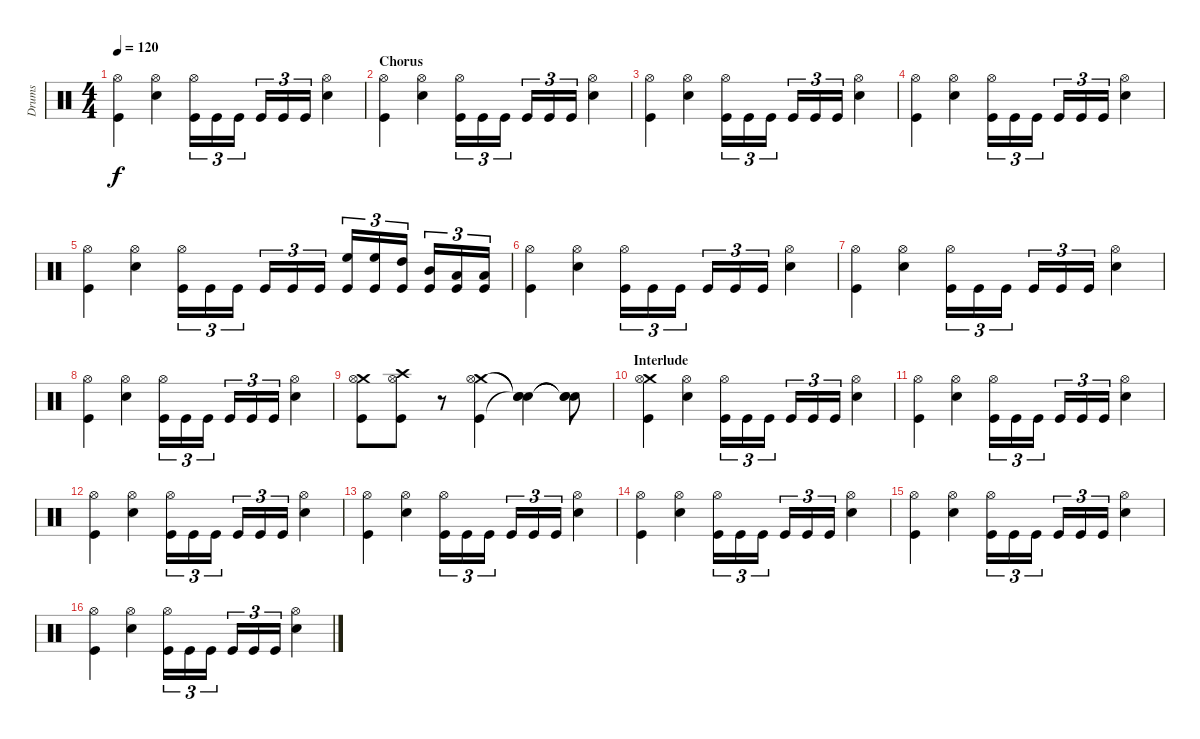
\track ("Drums" "Drums") {instrument percussion}
\staff {score}
\articulation defaults
\ts (4 4)
\tempo 120
\clef neutral
\ks c
("Hi-Hat (open)" "Kick (hit)").4{dy f} ("Hi-Hat (open)" "Snare (hit) 2").4 ("Hi-Hat (open)" "Kick (hit)").16{tu (3 2)} "Kick (hit)".16{tu (3 2)} "Kick (hit)".16{tu (3 2)} "Kick (hit)".16{tu (3 2)} "Kick (hit)".16{tu (3 2)} "Kick (hit)".16{tu (3 2)} ("Hi-Hat (open)" "Snare (hit) 2").4 |
\section ("" "Chorus")
("Hi-Hat (open)" "Kick (hit)").4 ("Hi-Hat (open)" "Snare (hit) 2").4 ("Hi-Hat (open)" "Kick (hit)").16{tu (3 2)} "Kick (hit)".16{tu (3 2)} "Kick (hit)".16{tu (3 2)} "Kick (hit)".16{tu (3 2)} "Kick (hit)".16{tu (3 2)} "Kick (hit)".16{tu (3 2)} ("Hi-Hat (open)" "Snare (hit) 2").4 |
("Hi-Hat (open)" "Kick (hit)").4 ("Hi-Hat (open)" "Snare (hit) 2").4 ("Hi-Hat (open)" "Kick (hit)").16{tu (3 2)} "Kick (hit)".16{tu (3 2)} "Kick (hit)".16{tu (3 2)} "Kick (hit)".16{tu (3 2)} "Kick (hit)".16{tu (3 2)} "Kick (hit)".16{tu (3 2)} ("Hi-Hat (open)" "Snare (hit) 2").4 |
("Hi-Hat (open)" "Kick (hit)").4 ("Hi-Hat (open)" "Snare (hit) 2").4 ("Hi-Hat (open)" "Kick (hit)").16{tu (3 2)} "Kick (hit)".16{tu (3 2)} "Kick (hit)".16{tu (3 2)} "Kick (hit)".16{tu (3 2)} "Kick (hit)".16{tu (3 2)} "Kick (hit)".16{tu (3 2)} ("Hi-Hat (open)" "Snare (hit) 2").4 |
("Hi-Hat (open)" "Kick (hit)").4 ("Hi-Hat (open)" "Snare (hit) 2").4 ("Hi-Hat (open)" "Kick (hit)").16{tu (3 2)} "Kick (hit)".16{tu (3 2)} "Kick (hit)".16{tu (3 2)} "Kick (hit)".16{tu (3 2)} "Kick (hit)".16{tu (3 2)} "Kick (hit)".16{tu (3 2)} ("High Floor Tom (hit)" "Kick (hit)").16{tu (3 2)} ("High Floor Tom (hit)" "Kick (hit)").16{tu (3 2)} ("High Tom (hit)" "Kick (hit)").16{tu (3 2)} ("Mid Tom (hit)" "Kick (hit)").16{tu (3 2)} ("Low Tom (hit)" "Kick (hit)").16{tu (3 2)} ("Low Tom (hit)" "Kick (hit)").16{tu (3 2)} |
("Hi-Hat (open)" "Kick (hit)").4 ("Hi-Hat (open)" "Snare (hit) 2").4 ("Hi-Hat (open)" "Kick (hit)").16{tu (3 2)} "Kick (hit)".16{tu (3 2)} "Kick (hit)".16{tu (3 2)} "Kick (hit)".16{tu (3 2)} "Kick (hit)".16{tu (3 2)} "Kick (hit)".16{tu (3 2)} ("Hi-Hat (open)" "Snare (hit) 2").4 |
("Hi-Hat (open)" "Kick (hit)").4 ("Hi-Hat (open)" "Snare (hit) 2").4 ("Hi-Hat (open)" "Kick (hit)").16{tu (3 2)} "Kick (hit)".16{tu (3 2)} "Kick (hit)".16{tu (3 2)} "Kick (hit)".16{tu (3 2)} "Kick (hit)".16{tu (3 2)} "Kick (hit)".16{tu (3 2)} ("Hi-Hat (open)" "Snare (hit) 2").4 |
("Hi-Hat (open)" "Kick (hit)").4 ("Hi-Hat (open)" "Snare (hit) 2").4 ("Hi-Hat (open)" "Kick (hit)").16{tu (3 2)} "Kick (hit)".16{tu (3 2)} "Kick (hit)".16{tu (3 2)} "Kick (hit)".16{tu (3 2)} "Kick (hit)".16{tu (3 2)} "Kick (hit)".16{tu (3 2)} ("Hi-Hat (open)" "Snare (hit) 2").4 |
("Crash medium (hit)" "Hi-Hat (open)" "Kick (hit)").8 ("Crash high (hit)" "Hi-Hat (open)" "Kick (hit)").8 r.8 ("Crash medium (hit)" "Hi-Hat (open)" "Kick (hit)").4 ("Snare (hit)"{t} "Snare (hit)"{t} "Snare (hit)"{t}).4 ("Snare (hit)"{t} "Snare (hit)"{t} "Snare (hit)"{t}).8 |
\section ("" "Interlude")
("Crash medium (hit)" "Hi-Hat (open)" "Kick (hit)").4 ("Hi-Hat (open)" "Snare (hit) 2").4 ("Hi-Hat (open)" "Kick (hit)").16{tu (3 2)} "Kick (hit)".16{tu (3 2)} "Kick (hit)".16{tu (3 2)} "Kick (hit)".16{tu (3 2)} "Kick (hit)".16{tu (3 2)} "Kick (hit)".16{tu (3 2)} ("Hi-Hat (open)" "Snare (hit) 2").4 |
("Hi-Hat (open)" "Kick (hit)").4 ("Hi-Hat (open)" "Snare (hit) 2").4 ("Hi-Hat (open)" "Kick (hit)").16{tu (3 2)} "Kick (hit)".16{tu (3 2)} "Kick (hit)".16{tu (3 2)} "Kick (hit)".16{tu (3 2)} "Kick (hit)".16{tu (3 2)} "Kick (hit)".16{tu (3 2)} ("Hi-Hat (open)" "Snare (hit) 2").4 |
("Hi-Hat (open)" "Kick (hit)").4 ("Hi-Hat (open)" "Snare (hit) 2").4 ("Hi-Hat (open)" "Kick (hit)").16{tu (3 2)} "Kick (hit)".16{tu (3 2)} "Kick (hit)".16{tu (3 2)} "Kick (hit)".16{tu (3 2)} "Kick (hit)".16{tu (3 2)} "Kick (hit)".16{tu (3 2)} ("Hi-Hat (open)" "Snare (hit) 2").4 |
("Hi-Hat (open)" "Kick (hit)").4 ("Hi-Hat (open)" "Snare (hit) 2").4 ("Hi-Hat (open)" "Kick (hit)").16{tu (3 2)} "Kick (hit)".16{tu (3 2)} "Kick (hit)".16{tu (3 2)} "Kick (hit)".16{tu (3 2)} "Kick (hit)".16{tu (3 2)} "Kick (hit)".16{tu (3 2)} ("Hi-Hat (open)" "Snare (hit) 2").4 |
("Hi-Hat (open)" "Kick (hit)").4 ("Hi-Hat (open)" "Snare (hit) 2").4 ("Hi-Hat (open)" "Kick (hit)").16{tu (3 2)} "Kick (hit)".16{tu (3 2)} "Kick (hit)".16{tu (3 2)} "Kick (hit)".16{tu (3 2)} "Kick (hit)".16{tu (3 2)} "Kick (hit)".16{tu (3 2)} ("Hi-Hat (open)" "Snare (hit) 2").4 |
("Hi-Hat (open)" "Kick (hit)").4 ("Hi-Hat (open)" "Snare (hit) 2").4 ("Hi-Hat (open)" "Kick (hit)").16{tu (3 2)} "Kick (hit)".16{tu (3 2)} "Kick (hit)".16{tu (3 2)} "Kick (hit)".16{tu (3 2)} "Kick (hit)".16{tu (3 2)} "Kick (hit)".16{tu (3 2)} ("Hi-Hat (open)" "Snare (hit) 2").4 |
("Hi-Hat (open)" "Kick (hit)").4 ("Hi-Hat (open)" "Snare (hit) 2").4 ("Hi-Hat (open)" "Kick (hit)").16{tu (3 2)} "Kick (hit)".16{tu (3 2)} "Kick (hit)".16{tu (3 2)} "Kick (hit)".16{tu (3 2)} "Kick (hit)".16{tu (3 2)} "Kick (hit)".16{tu (3 2)} ("Hi-Hat (open)" "Snare (hit) 2").4
